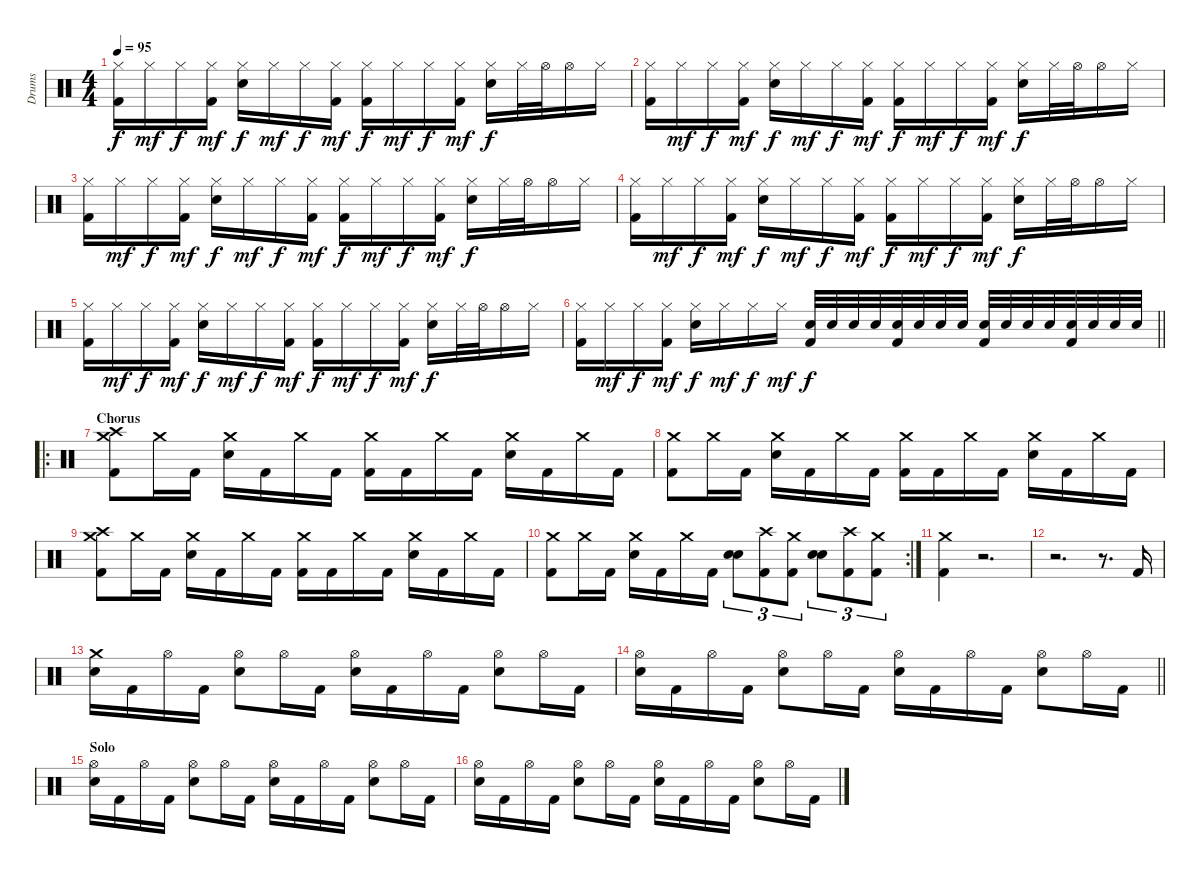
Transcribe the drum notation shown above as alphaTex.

\track ("Drums" "Drums") {instrument percussion}
\staff {score}
\articulation defaults
\ts (4 4)
\tempo 95
\clef neutral
\ks c
("Hi-Hat (closed)" "Kick (hit) 2").16{dy f} "Hi-Hat (closed)".16{dy mf} "Hi-Hat (closed)".16{dy f} ("Kick (hit) 2" "Hi-Hat (closed)").16{dy mf} ("Electric Snare (hit)" "Hi-Hat (closed)").16{dy f} "Hi-Hat (closed)".16{dy mf} "Hi-Hat (closed)".16{dy f} ("Kick (hit) 2" "Hi-Hat (closed)").16{dy mf} ("Kick (hit) 2" "Hi-Hat (closed)").16{dy f} "Hi-Hat (closed)".16{dy mf} "Hi-Hat (closed)".16{dy f} ("Kick (hit) 2" "Hi-Hat (closed)").16{dy mf} ("Electric Snare (hit)" "Hi-Hat (closed)").16{dy f} "Hi-Hat (closed)".32 "Hi-Hat (open)".32 "Hi-Hat (open)".16 "Hi-Hat (closed)".16 |
("Hi-Hat (closed)" "Kick (hit) 2").16 "Hi-Hat (closed)".16{dy mf} "Hi-Hat (closed)".16{dy f} ("Kick (hit) 2" "Hi-Hat (closed)").16{dy mf} ("Electric Snare (hit)" "Hi-Hat (closed)").16{dy f} "Hi-Hat (closed)".16{dy mf} "Hi-Hat (closed)".16{dy f} ("Kick (hit) 2" "Hi-Hat (closed)").16{dy mf} ("Kick (hit) 2" "Hi-Hat (closed)").16{dy f} "Hi-Hat (closed)".16{dy mf} "Hi-Hat (closed)".16{dy f} ("Kick (hit) 2" "Hi-Hat (closed)").16{dy mf} ("Electric Snare (hit)" "Hi-Hat (closed)").16{dy f} "Hi-Hat (closed)".32 "Hi-Hat (open)".32 "Hi-Hat (open)".16 "Hi-Hat (closed)".16 |
("Hi-Hat (closed)" "Kick (hit) 2").16 "Hi-Hat (closed)".16{dy mf} "Hi-Hat (closed)".16{dy f} ("Kick (hit) 2" "Hi-Hat (closed)").16{dy mf} ("Electric Snare (hit)" "Hi-Hat (closed)").16{dy f} "Hi-Hat (closed)".16{dy mf} "Hi-Hat (closed)".16{dy f} ("Kick (hit) 2" "Hi-Hat (closed)").16{dy mf} ("Kick (hit) 2" "Hi-Hat (closed)").16{dy f} "Hi-Hat (closed)".16{dy mf} "Hi-Hat (closed)".16{dy f} ("Kick (hit) 2" "Hi-Hat (closed)").16{dy mf} ("Electric Snare (hit)" "Hi-Hat (closed)").16{dy f} "Hi-Hat (closed)".32 "Hi-Hat (open)".32 "Hi-Hat (open)".16 "Hi-Hat (closed)".16 |
("Hi-Hat (closed)" "Kick (hit) 2").16 "Hi-Hat (closed)".16{dy mf} "Hi-Hat (closed)".16{dy f} ("Kick (hit) 2" "Hi-Hat (closed)").16{dy mf} ("Electric Snare (hit)" "Hi-Hat (closed)").16{dy f} "Hi-Hat (closed)".16{dy mf} "Hi-Hat (closed)".16{dy f} ("Kick (hit) 2" "Hi-Hat (closed)").16{dy mf} ("Kick (hit) 2" "Hi-Hat (closed)").16{dy f} "Hi-Hat (closed)".16{dy mf} "Hi-Hat (closed)".16{dy f} ("Kick (hit) 2" "Hi-Hat (closed)").16{dy mf} ("Electric Snare (hit)" "Hi-Hat (closed)").16{dy f} "Hi-Hat (closed)".32 "Hi-Hat (open)".32 "Hi-Hat (open)".16 "Hi-Hat (closed)".16 |
("Hi-Hat (closed)" "Kick (hit) 2").16 "Hi-Hat (closed)".16{dy mf} "Hi-Hat (closed)".16{dy f} ("Kick (hit) 2" "Hi-Hat (closed)").16{dy mf} ("Electric Snare (hit)" "Hi-Hat (closed)").16{dy f} "Hi-Hat (closed)".16{dy mf} "Hi-Hat (closed)".16{dy f} ("Kick (hit) 2" "Hi-Hat (closed)").16{dy mf} ("Kick (hit) 2" "Hi-Hat (closed)").16{dy f} "Hi-Hat (closed)".16{dy mf} "Hi-Hat (closed)".16{dy f} ("Kick (hit) 2" "Hi-Hat (closed)").16{dy mf} ("Electric Snare (hit)" "Hi-Hat (closed)").16{dy f} "Hi-Hat (closed)".32 "Hi-Hat (open)".32 "Hi-Hat (open)".16 "Hi-Hat (closed)".16 |
\barLineRight lightlight
("Hi-Hat (closed)" "Kick (hit) 2").16 "Hi-Hat (closed)".16{dy mf} "Hi-Hat (closed)".16{dy f} ("Kick (hit) 2" "Hi-Hat (closed)").16{dy mf} ("Electric Snare (hit)" "Hi-Hat (closed)").16{dy f} "Hi-Hat (closed)".16{dy mf} "Hi-Hat (closed)".16{dy f} "Hi-Hat (closed)".16{dy mf} ("Kick (hit) 2" "Electric Snare (hit)").32{dy f} "Electric Snare (hit)".32 "Electric Snare (hit)".32 "Electric Snare (hit)".32 ("Kick (hit) 2" "Electric Snare (hit)").32 "Electric Snare (hit)".32 "Electric Snare (hit)".32 "Electric Snare (hit)".32 ("Kick (hit) 2" "Electric Snare (hit)").32 "Electric Snare (hit)".32 "Electric Snare (hit)".32 "Electric Snare (hit)".32 ("Kick (hit) 2" "Electric Snare (hit)").32 "Electric Snare (hit)".32 "Electric Snare (hit)".32 "Electric Snare (hit)".32 |
\ro
\section ("" "Chorus")
("Crash high (hit)" "Crash medium (hit)" "Kick (hit) 2").8 "Crash medium (hit)".16 "Kick (hit) 2".16 ("Crash medium (hit)" "Electric Snare (hit)").16 "Kick (hit) 2".16 "Crash medium (hit)".16 "Kick (hit) 2".16 ("Crash medium (hit)" "Kick (hit) 2").16 "Kick (hit) 2".16 "Crash medium (hit)".16 "Kick (hit) 2".16 ("Electric Snare (hit)" "Crash medium (hit)").16 "Kick (hit) 2".16 "Crash medium (hit)".16 "Kick (hit) 2".16 |
("Crash medium (hit)" "Kick (hit) 2").8 "Crash medium (hit)".16 "Kick (hit) 2".16 ("Crash medium (hit)" "Electric Snare (hit)").16 "Kick (hit) 2".16 "Crash medium (hit)".16 "Kick (hit) 2".16 ("Crash medium (hit)" "Kick (hit) 2").16 "Kick (hit) 2".16 "Crash medium (hit)".16 "Kick (hit) 2".16 ("Electric Snare (hit)" "Crash medium (hit)").16 "Kick (hit) 2".16 "Crash medium (hit)".16 "Kick (hit) 2".16 |
("Crash high (hit)" "Crash medium (hit)" "Kick (hit) 2").8 "Crash medium (hit)".16 "Kick (hit) 2".16 ("Crash medium (hit)" "Electric Snare (hit)").16 "Kick (hit) 2".16 "Crash medium (hit)".16 "Kick (hit) 2".16 ("Crash medium (hit)" "Kick (hit) 2").16 "Kick (hit) 2".16 "Crash medium (hit)".16 "Kick (hit) 2".16 ("Electric Snare (hit)" "Crash medium (hit)").16 "Kick (hit) 2".16 "Crash medium (hit)".16 "Kick (hit) 2".16 |
\rc 2
("Crash medium (hit)" "Kick (hit) 2").8 "Crash medium (hit)".16 "Kick (hit) 2".16 ("Crash medium (hit)" "Electric Snare (hit)").16 "Kick (hit) 2".16 "Crash medium (hit)".16 "Kick (hit) 2".16 ("Snare (hit) 2" "Electric Snare (hit)").8{tu (3 2)} ("Crash high (hit)" "Kick (hit) 2").8{tu (3 2)} ("Crash medium (hit)" "Kick (hit) 2").8{tu (3 2)} ("Snare (hit) 2" "Electric Snare (hit)").8{tu (3 2)} ("Crash high (hit)" "Kick (hit) 2").8{tu (3 2)} ("Crash medium (hit)" "Kick (hit) 2").8{tu (3 2)} |
("Crash medium (hit)" "Kick (hit) 2").4 r.2{d} |
r.2{d} r.8{d} "Kick (hit) 2".16 |
("Electric Snare (hit)" "Crash medium (hit)").16 "Kick (hit) 2".16 "Hi-Hat (open)".16 "Kick (hit) 2".16 ("Electric Snare (hit)" "Hi-Hat (open)").8 "Hi-Hat (open)".16 "Kick (hit) 2".16 ("Electric Snare (hit)" "Hi-Hat (open)").16 "Kick (hit) 2".16 "Hi-Hat (open)".16 "Kick (hit) 2".16 ("Electric Snare (hit)" "Hi-Hat (open)").8 "Hi-Hat (open)".16 "Kick (hit) 2".16 |
\barLineRight lightlight
("Electric Snare (hit)" "Hi-Hat (open)").16 "Kick (hit) 2".16 "Hi-Hat (open)".16 "Kick (hit) 2".16 ("Electric Snare (hit)" "Hi-Hat (open)").8 "Hi-Hat (open)".16 "Kick (hit) 2".16 ("Electric Snare (hit)" "Hi-Hat (open)").16 "Kick (hit) 2".16 "Hi-Hat (open)".16 "Kick (hit) 2".16 ("Electric Snare (hit)" "Hi-Hat (open)").8 "Hi-Hat (open)".16 "Kick (hit) 2".16 |
\section ("" "Solo")
("Electric Snare (hit)" "Hi-Hat (open)").16 "Kick (hit) 2".16 "Hi-Hat (open)".16 "Kick (hit) 2".16 ("Electric Snare (hit)" "Hi-Hat (open)").8 "Hi-Hat (open)".16 "Kick (hit) 2".16 ("Electric Snare (hit)" "Hi-Hat (open)").16 "Kick (hit) 2".16 "Hi-Hat (open)".16 "Kick (hit) 2".16 ("Electric Snare (hit)" "Hi-Hat (open)").8 "Hi-Hat (open)".16 "Kick (hit) 2".16 |
("Electric Snare (hit)" "Hi-Hat (open)").16 "Kick (hit) 2".16 "Hi-Hat (open)".16 "Kick (hit) 2".16 ("Electric Snare (hit)" "Hi-Hat (open)").8 "Hi-Hat (open)".16 "Kick (hit) 2".16 ("Electric Snare (hit)" "Hi-Hat (open)").16 "Kick (hit) 2".16 "Hi-Hat (open)".16 "Kick (hit) 2".16 ("Electric Snare (hit)" "Hi-Hat (open)").8 "Hi-Hat (open)".16 "Kick (hit) 2".16
